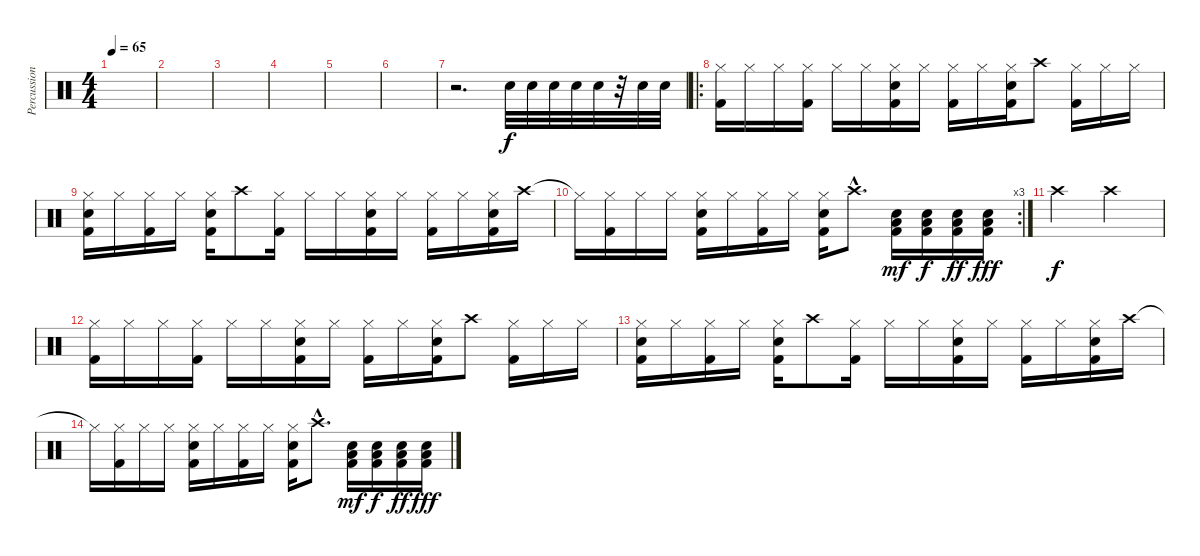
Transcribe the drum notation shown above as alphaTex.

\track ("Percussions" "Percussion") {instrument percussion}
\staff {score}
\articulation defaults
\ts (4 4)
\tempo 65
\clef neutral
\ks c
|
|
|
|
|
|
r.2{d} "Snare (hit) 2".32 "Snare (hit) 2".32 "Snare (hit) 2".32 "Snare (hit) 2".32 "Snare (hit) 2".32 r.32 "Snare (hit) 2".32 "Snare (hit) 2".32 |
\ro
("Hi-Hat (closed)" "Kick (hit) 2").16 "Hi-Hat (closed)".16 "Hi-Hat (closed)".16 ("Hi-Hat (closed)" "Kick (hit) 2").16 "Hi-Hat (closed)".16 "Hi-Hat (closed)".16 ("Hi-Hat (closed)" "Snare (hit) 2" "Kick (hit) 2").16 "Hi-Hat (closed)".16 ("Hi-Hat (closed)" "Kick (hit) 2").16 "Hi-Hat (closed)".16 ("Hi-Hat (closed)" "Snare (hit) 2" "Kick (hit) 2").16 "Crash high (hit)".8 ("Hi-Hat (closed)" "Kick (hit) 2").16 "Hi-Hat (closed)".16 "Hi-Hat (closed)".16 |
("Hi-Hat (closed)" "Snare (hit) 2" "Kick (hit) 2").16 "Hi-Hat (closed)".16 ("Hi-Hat (closed)" "Kick (hit) 2").16 "Hi-Hat (closed)".16 ("Hi-Hat (closed)" "Snare (hit) 2" "Kick (hit) 2").16 "Crash high (hit)".8 ("Hi-Hat (closed)" "Kick (hit) 2").16 "Hi-Hat (closed)".16 "Hi-Hat (closed)".16 ("Hi-Hat (closed)" "Snare (hit) 2" "Kick (hit) 2").16 "Hi-Hat (closed)".16 ("Hi-Hat (closed)" "Kick (hit) 2").16 "Hi-Hat (closed)".16 ("Hi-Hat (closed)" "Snare (hit) 2" "Kick (hit) 2").16 "Crash high (hit)".16 |
\rc 3 "Hi-Hat (closed)"{t}.16
("Hi-Hat (closed)" "Kick (hit) 2").16 "Hi-Hat (closed)".16 "Hi-Hat (closed)".16 ("Hi-Hat (closed)" "Snare (hit) 2" "Kick (hit) 2").16 "Hi-Hat (closed)".16 ("Hi-Hat (closed)" "Kick (hit) 2").16 "Hi-Hat (closed)".16 ("Hi-Hat (closed)" "Snare (hit) 2" "Kick (hit) 2").16 "Crash high (hit)"{hac}.8{d} ("Low Tom (hit)" "Snare (hit) 2" "Kick (hit) 2").16{dy mf} ("Low Tom (hit)" "Snare (hit) 2" "Kick (hit) 2").16{dy f} ("Low Tom (hit)" "Snare (hit) 2" "Kick (hit) 2").16{dy ff} ("Low Tom (hit)" "Snare (hit) 2" "Kick (hit) 2").16{dy fff} |
"Crash high (hit)".2{dy f} "Crash high (hit)".2 |
("Hi-Hat (closed)" "Kick (hit) 2").16 "Hi-Hat (closed)".16 "Hi-Hat (closed)".16 ("Hi-Hat (closed)" "Kick (hit) 2").16 "Hi-Hat (closed)".16 "Hi-Hat (closed)".16 ("Hi-Hat (closed)" "Snare (hit) 2" "Kick (hit) 2").16 "Hi-Hat (closed)".16 ("Hi-Hat (closed)" "Kick (hit) 2").16 "Hi-Hat (closed)".16 ("Hi-Hat (closed)" "Snare (hit) 2" "Kick (hit) 2").16 "Crash high (hit)".8 ("Hi-Hat (closed)" "Kick (hit) 2").16 "Hi-Hat (closed)".16 "Hi-Hat (closed)".16 |
("Hi-Hat (closed)" "Snare (hit) 2" "Kick (hit) 2").16 "Hi-Hat (closed)".16 ("Hi-Hat (closed)" "Kick (hit) 2").16 "Hi-Hat (closed)".16 ("Hi-Hat (closed)" "Snare (hit) 2" "Kick (hit) 2").16 "Crash high (hit)".8 ("Hi-Hat (closed)" "Kick (hit) 2").16 "Hi-Hat (closed)".16 "Hi-Hat (closed)".16 ("Hi-Hat (closed)" "Snare (hit) 2" "Kick (hit) 2").16 "Hi-Hat (closed)".16 ("Hi-Hat (closed)" "Kick (hit) 2").16 "Hi-Hat (closed)".16 ("Hi-Hat (closed)" "Snare (hit) 2" "Kick (hit) 2").16 "Crash high (hit)".16 |
"Hi-Hat (closed)"{t}.16 ("Hi-Hat (closed)" "Kick (hit) 2").16 "Hi-Hat (closed)".16 "Hi-Hat (closed)".16 ("Hi-Hat (closed)" "Snare (hit) 2" "Kick (hit) 2").16 "Hi-Hat (closed)".16 ("Hi-Hat (closed)" "Kick (hit) 2").16 "Hi-Hat (closed)".16 ("Hi-Hat (closed)" "Snare (hit) 2" "Kick (hit) 2").16 "Crash high (hit)"{hac}.8{d} ("Low Tom (hit)" "Snare (hit) 2" "Kick (hit) 2").16{dy mf} ("Low Tom (hit)" "Snare (hit) 2" "Kick (hit) 2").16{dy f} ("Low Tom (hit)" "Snare (hit) 2" "Kick (hit) 2").16{dy ff} ("Low Tom (hit)" "Snare (hit) 2" "Kick (hit) 2").16{dy fff}
